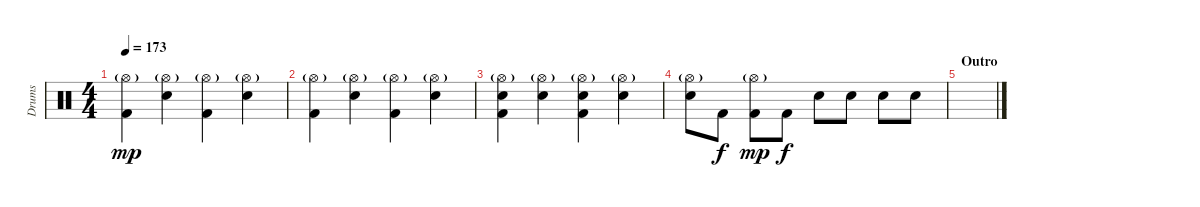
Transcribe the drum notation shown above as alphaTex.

\track ("Drums" "Drums") {instrument percussion}
\staff {score}
\articulation defaults
\ts (4 4)
\tempo 173
\clef neutral
\ks c
("Hi-Hat (open)"{g} "Kick (hit) 2").4{dy mp} ("Hi-Hat (open)"{g} "Snare (hit) 2").4 ("Hi-Hat (open)"{g} "Kick (hit) 2").4 ("Hi-Hat (open)"{g} "Snare (hit) 2").4 |
("Hi-Hat (open)"{g} "Kick (hit) 2").4 ("Hi-Hat (open)"{g} "Snare (hit) 2").4 ("Hi-Hat (open)"{g} "Kick (hit) 2").4 ("Hi-Hat (open)"{g} "Snare (hit) 2").4 |
("Hi-Hat (open)"{g} "Snare (hit) 2" "Kick (hit) 2").4 ("Hi-Hat (open)"{g} "Snare (hit) 2").4 ("Hi-Hat (open)"{g} "Snare (hit) 2" "Kick (hit) 2").4 ("Hi-Hat (open)"{g} "Snare (hit) 2").4 |
("Hi-Hat (open)"{g} "Snare (hit) 2").8 "Kick (hit) 2".8{dy f} ("Hi-Hat (open)"{g} "Kick (hit) 2").8{dy mp} "Kick (hit) 2".8{dy f} "Snare (hit) 2".8 "Snare (hit) 2".8 "Snare (hit) 2".8 "Snare (hit) 2".8 |
\section ("" "Outro")
